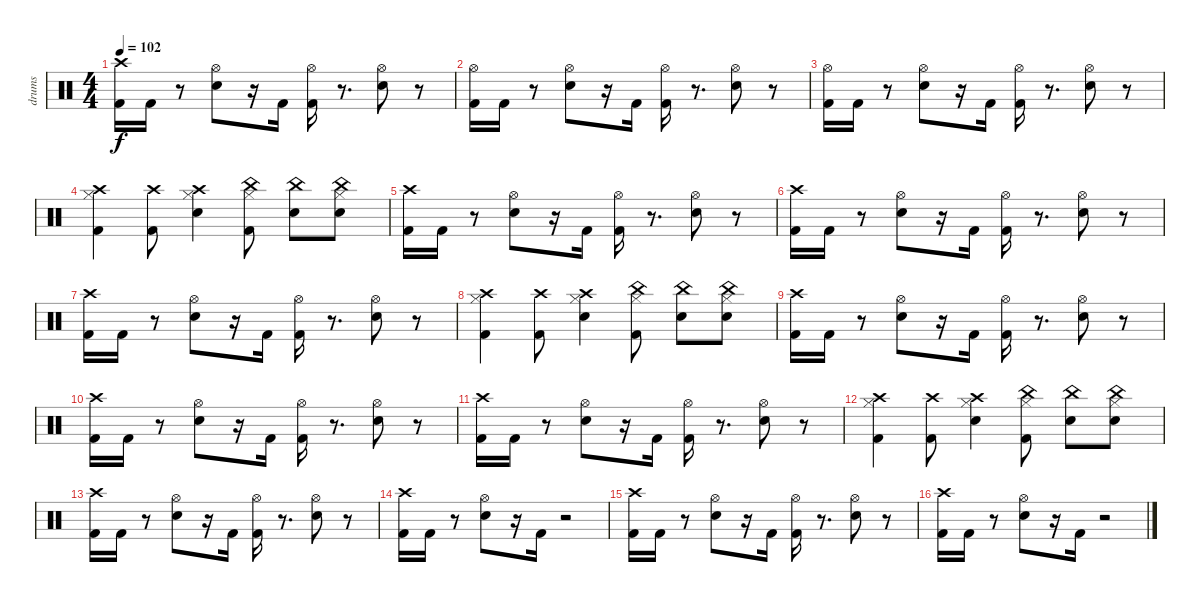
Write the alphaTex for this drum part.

\track ("drums" "drums") {instrument percussion}
\staff {score}
\articulation defaults
\ts (4 4)
\tempo 102
\clef neutral
\ks c
("Kick (hit) 2" "Crash high (hit)").16{dy f} "Kick (hit) 2".16 r.8 ("Snare (hit) 2" "Hi-Hat (open)").8 r.16 "Kick (hit) 2".16 ("Kick (hit) 2" "Hi-Hat (open)").16 r.8{d} ("Snare (hit) 2" "Hi-Hat (open)").8 r.8 |
("Kick (hit) 2" "Hi-Hat (open)").16 "Kick (hit) 2".16 r.8 ("Snare (hit) 2" "Hi-Hat (open)").8 r.16 "Kick (hit) 2".16 ("Kick (hit) 2" "Hi-Hat (open)").16 r.8{d} ("Snare (hit) 2" "Hi-Hat (open)").8 r.8 |
("Kick (hit) 2" "Hi-Hat (open)").16 "Kick (hit) 2".16 r.8 ("Snare (hit) 2" "Hi-Hat (open)").8 r.16 "Kick (hit) 2".16 ("Kick (hit) 2" "Hi-Hat (open)").16 r.8{d} ("Snare (hit) 2" "Hi-Hat (open)").8 r.8 |
("Kick (hit) 2" "Hi-Hat (closed)" "Crash high (hit)").4 ("Kick (hit) 2" "Crash high (hit)").8 ("Snare (hit) 2" "Hi-Hat (closed)" "Crash high (hit)").4 ("Kick (hit) 2" "Hi-Hat (closed)" "China (hit)").8 ("Snare (hit) 2" "China (hit)").8 ("Snare (hit) 2" "Hi-Hat (closed)" "China (hit)").8 |
("Kick (hit) 2" "Crash high (hit)").16 "Kick (hit) 2".16 r.8 ("Snare (hit) 2" "Hi-Hat (open)").8 r.16 "Kick (hit) 2".16 ("Kick (hit) 2" "Hi-Hat (open)").16 r.8{d} ("Snare (hit) 2" "Hi-Hat (open)").8 r.8 |
("Kick (hit) 2" "Crash high (hit)").16 "Kick (hit) 2".16 r.8 ("Snare (hit) 2" "Hi-Hat (open)").8 r.16 "Kick (hit) 2".16 ("Kick (hit) 2" "Hi-Hat (open)").16 r.8{d} ("Snare (hit) 2" "Hi-Hat (open)").8 r.8 |
("Kick (hit) 2" "Crash high (hit)").16 "Kick (hit) 2".16 r.8 ("Snare (hit) 2" "Hi-Hat (open)").8 r.16 "Kick (hit) 2".16 ("Kick (hit) 2" "Hi-Hat (open)").16 r.8{d} ("Snare (hit) 2" "Hi-Hat (open)").8 r.8 |
("Kick (hit) 2" "Hi-Hat (closed)" "Crash high (hit)").4 ("Kick (hit) 2" "Crash high (hit)").8 ("Snare (hit) 2" "Hi-Hat (closed)" "Crash high (hit)").4 ("Kick (hit) 2" "Hi-Hat (closed)" "China (hit)").8 ("Snare (hit) 2" "China (hit)").8 ("Snare (hit) 2" "Hi-Hat (closed)" "China (hit)").8 |
("Kick (hit) 2" "Crash high (hit)").16 "Kick (hit) 2".16 r.8 ("Snare (hit) 2" "Hi-Hat (open)").8 r.16 "Kick (hit) 2".16 ("Kick (hit) 2" "Hi-Hat (open)").16 r.8{d} ("Snare (hit) 2" "Hi-Hat (open)").8 r.8 |
("Kick (hit) 2" "Crash high (hit)").16 "Kick (hit) 2".16 r.8 ("Snare (hit) 2" "Hi-Hat (open)").8 r.16 "Kick (hit) 2".16 ("Kick (hit) 2" "Hi-Hat (open)").16 r.8{d} ("Snare (hit) 2" "Hi-Hat (open)").8 r.8 |
("Kick (hit) 2" "Crash high (hit)").16 "Kick (hit) 2".16 r.8 ("Snare (hit) 2" "Hi-Hat (open)").8 r.16 "Kick (hit) 2".16 ("Kick (hit) 2" "Hi-Hat (open)").16 r.8{d} ("Snare (hit) 2" "Hi-Hat (open)").8 r.8 |
("Kick (hit) 2" "Hi-Hat (closed)" "Crash high (hit)").4 ("Kick (hit) 2" "Crash high (hit)").8 ("Snare (hit) 2" "Hi-Hat (closed)" "Crash high (hit)").4 ("Kick (hit) 2" "Hi-Hat (closed)" "China (hit)").8 ("Snare (hit) 2" "China (hit)").8 ("Snare (hit) 2" "Hi-Hat (closed)" "China (hit)").8 |
("Kick (hit) 2" "Crash high (hit)").16 "Kick (hit) 2".16 r.8 ("Snare (hit) 2" "Hi-Hat (open)").8 r.16 "Kick (hit) 2".16 ("Kick (hit) 2" "Hi-Hat (open)").16 r.8{d} ("Snare (hit) 2" "Hi-Hat (open)").8 r.8 |
("Kick (hit) 2" "Crash high (hit)").16 "Kick (hit) 2".16 r.8 ("Snare (hit) 2" "Hi-Hat (open)").8 r.16 "Kick (hit) 2".16 r.2 |
("Kick (hit) 2" "Crash high (hit)").16 "Kick (hit) 2".16 r.8 ("Snare (hit) 2" "Hi-Hat (open)").8 r.16 "Kick (hit) 2".16 ("Kick (hit) 2" "Hi-Hat (open)").16 r.8{d} ("Snare (hit) 2" "Hi-Hat (open)").8 r.8 |
("Kick (hit) 2" "Crash high (hit)").16 "Kick (hit) 2".16 r.8 ("Snare (hit) 2" "Hi-Hat (open)").8 r.16 "Kick (hit) 2".16 r.2
